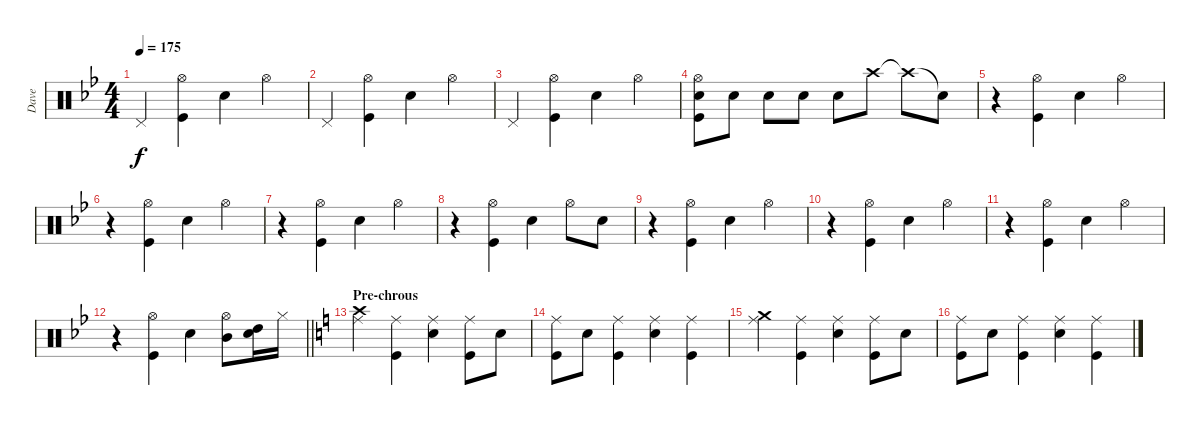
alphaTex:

\track ("Dave" "Dave") {instrument percussion}
\staff {score}
\articulation defaults
\ts (4 4)
\tempo 175
\clef neutral
\ks gminor "Pedal Hi-Hat (hit)".4{dy f}
("Hi-Hat (open)" "Kick (hit)").4 "Snare (hit) 2".4 "Hi-Hat (open)".4 |
"Pedal Hi-Hat (hit)".4 ("Hi-Hat (open)" "Kick (hit)").4 "Snare (hit) 2".4 "Hi-Hat (open)".4 |
"Pedal Hi-Hat (hit)".4 ("Hi-Hat (open)" "Kick (hit)").4 "Snare (hit) 2".4 "Hi-Hat (open)".4 |
("Hi-Hat (open)" "Snare (hit) 2" "Kick (hit)").8 "Snare (hit) 2".8 "Snare (hit) 2".8 "Snare (hit) 2".8 "Snare (hit) 2".8 "Crash high (hit)".8 "Crash high (hit)"{t}.8 "Snare (hit)"{t}.8 |
r.4 ("Hi-Hat (open)" "Kick (hit)").4 "Snare (hit) 2".4 "Hi-Hat (open)".4 |
r.4 ("Hi-Hat (open)" "Kick (hit)").4 "Snare (hit) 2".4 "Hi-Hat (open)".4 |
r.4 ("Hi-Hat (open)" "Kick (hit)").4 "Snare (hit) 2".4 "Hi-Hat (open)".4 |
r.4 ("Hi-Hat (open)" "Kick (hit)").4 "Snare (hit) 2".4 "Hi-Hat (open)".8 "Snare (hit) 2".8 |
r.4 ("Hi-Hat (open)" "Kick (hit)").4 "Snare (hit) 2".4 "Hi-Hat (open)".4 |
r.4 ("Hi-Hat (open)" "Kick (hit)").4 "Snare (hit) 2".4 "Hi-Hat (open)".4 |
r.4 ("Hi-Hat (open)" "Kick (hit)").4 "Snare (hit) 2".4 "Hi-Hat (open)".4 |
\barLineRight lightlight
r.4 ("Hi-Hat (open)" "Kick (hit)").4 "Snare (hit) 2".4 ("Mid Tom (hit)" "Hi-Hat (open)").8 ("High Tom (hit)" "Snare (hit) 2").16 "Hi-Hat (closed)".16 |
\section ("" "Pre-chrous")
\ks c
("Crash high (hit)" "Ride (middle)").4 ("Ride (middle)" "Kick (hit)").4 ("Ride (middle)" "Snare (hit) 2").4 ("Ride (middle)" "Kick (hit)").8 "Snare (hit) 2".8 |
("Ride (middle)" "Kick (hit)").8 "Snare (hit) 2".8 ("Ride (middle)" "Kick (hit)").4 ("Ride (middle)" "Snare (hit) 2").4 ("Ride (middle)" "Kick (hit)").4 |
("Crash medium (hit)" "Ride (middle)").4 ("Ride (middle)" "Kick (hit)").4 ("Ride (middle)" "Snare (hit) 2").4 ("Ride (middle)" "Kick (hit)").8 "Snare (hit) 2".8 |
("Ride (middle)" "Kick (hit)").8 "Snare (hit) 2".8 ("Ride (middle)" "Kick (hit)").4 ("Ride (middle)" "Snare (hit) 2").4 ("Ride (middle)" "Kick (hit)").4
